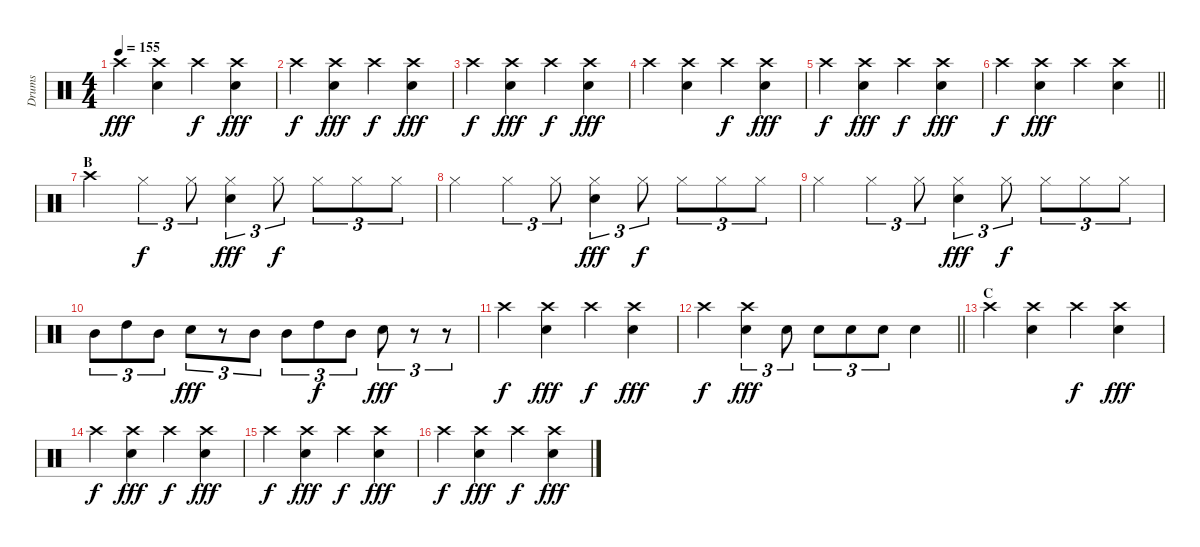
\track ("Drums" "Drums") {instrument percussion}
\staff {score}
\articulation defaults
\ts (4 4)
\tempo 155
\clef neutral
\ks c "Crash high (hit)".4{dy fff}
("Crash high (hit)" "Electric Snare (hit)").4 "Crash high (hit)".4{dy f} ("Crash high (hit)" "Electric Snare (hit)").4{dy fff} |
"Crash high (hit)".4{dy f} ("Crash high (hit)" "Electric Snare (hit)").4{dy fff} "Crash high (hit)".4{dy f} ("Crash high (hit)" "Electric Snare (hit)").4{dy fff} |
"Crash high (hit)".4{dy f} ("Crash high (hit)" "Electric Snare (hit)").4{dy fff} "Crash high (hit)".4{dy f} ("Crash high (hit)" "Electric Snare (hit)").4{dy fff} |
"Crash high (hit)".4 ("Crash high (hit)" "Electric Snare (hit)").4 "Crash high (hit)".4{dy f} ("Crash high (hit)" "Electric Snare (hit)").4{dy fff} |
"Crash high (hit)".4{dy f} ("Crash high (hit)" "Electric Snare (hit)").4{dy fff} "Crash high (hit)".4{dy f} ("Crash high (hit)" "Electric Snare (hit)").4{dy fff} |
\barLineRight lightlight "Crash high (hit)".4{dy f}
("Crash high (hit)" "Electric Snare (hit)").4{dy fff} "Crash high (hit)".4 ("Crash high (hit)" "Electric Snare (hit)").4 |
\section ("" "B")
"Crash high (hit)".4 "Hi-Hat (closed)".4{tu (3 2) dy f} "Hi-Hat (closed)".8{tu (3 2)} ("Hi-Hat (closed)" "Electric Snare (hit)").4{tu (3 2) dy fff} "Hi-Hat (closed)".8{tu (3 2) dy f} "Hi-Hat (closed)".8{tu (3 2)} "Hi-Hat (closed)".8{tu (3 2)} "Hi-Hat (closed)".8{tu (3 2)} |
"Hi-Hat (closed)".4 "Hi-Hat (closed)".4{tu (3 2)} "Hi-Hat (closed)".8{tu (3 2)} ("Hi-Hat (closed)" "Electric Snare (hit)").4{tu (3 2) dy fff} "Hi-Hat (closed)".8{tu (3 2) dy f} "Hi-Hat (closed)".8{tu (3 2)} "Hi-Hat (closed)".8{tu (3 2)} "Hi-Hat (closed)".8{tu (3 2)} |
"Hi-Hat (closed)".4 "Hi-Hat (closed)".4{tu (3 2)} "Hi-Hat (closed)".8{tu (3 2)} ("Hi-Hat (closed)" "Electric Snare (hit)").4{tu (3 2) dy fff} "Hi-Hat (closed)".8{tu (3 2) dy f} "Hi-Hat (closed)".8{tu (3 2)} "Hi-Hat (closed)".8{tu (3 2)} "Hi-Hat (closed)".8{tu (3 2)} |
"Mid Tom (hit)".8{tu (3 2)} "High Tom (hit)".8{tu (3 2)} "Mid Tom (hit)".8{tu (3 2)} "Electric Snare (hit)".8{tu (3 2) dy fff} r.8{tu (3 2)} "Mid Tom (hit)".8{tu (3 2)} "Mid Tom (hit)".8{tu (3 2)} "High Tom (hit)".8{tu (3 2) dy f} "Mid Tom (hit)".8{tu (3 2)} "Electric Snare (hit)".8{tu (3 2) dy fff} r.8{tu (3 2)} r.8{tu (3 2)} |
"Crash high (hit)".4{dy f} ("Crash high (hit)" "Electric Snare (hit)").4{dy fff} "Crash high (hit)".4{dy f} ("Crash high (hit)" "Electric Snare (hit)").4{dy fff} |
\barLineRight lightlight "Crash high (hit)".4{dy f}
("Crash high (hit)" "Electric Snare (hit)").4{tu (3 2) dy fff} "Electric Snare (hit)".8{tu (3 2)} "Electric Snare (hit)".8{tu (3 2)} "Electric Snare (hit)".8{tu (3 2)} "Electric Snare (hit)".8{tu (3 2)} "Electric Snare (hit)".4 |
\section ("" "C")
"Crash high (hit)".4 ("Crash high (hit)" "Electric Snare (hit)").4 "Crash high (hit)".4{dy f} ("Crash high (hit)" "Electric Snare (hit)").4{dy fff} |
"Crash high (hit)".4{dy f} ("Crash high (hit)" "Electric Snare (hit)").4{dy fff} "Crash high (hit)".4{dy f} ("Crash high (hit)" "Electric Snare (hit)").4{dy fff} |
"Crash high (hit)".4{dy f} ("Crash high (hit)" "Electric Snare (hit)").4{dy fff} "Crash high (hit)".4{dy f} ("Crash high (hit)" "Electric Snare (hit)").4{dy fff} |
"Crash high (hit)".4{dy f} ("Crash high (hit)" "Electric Snare (hit)").4{dy fff} "Crash high (hit)".4{dy f} ("Crash high (hit)" "Electric Snare (hit)").4{dy fff}
